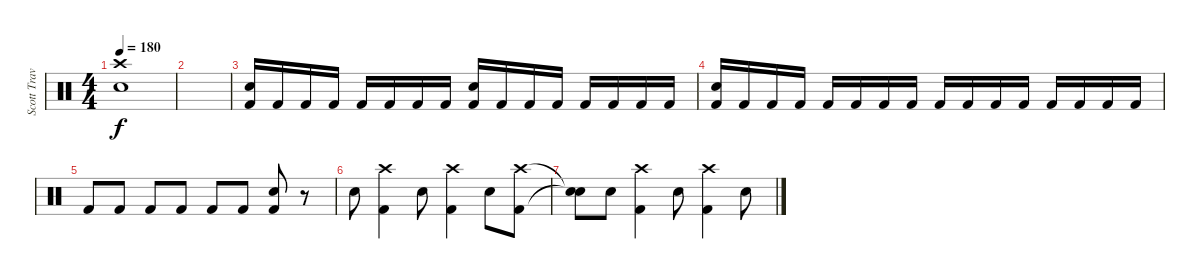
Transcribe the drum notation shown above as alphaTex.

\track ("Scott Travis" "Scott Trav") {instrument percussion}
\staff {score}
\articulation defaults
\ts (4 4)
\tempo 180
\clef neutral
\ks c
("Crash high (hit)" "Snare (hit) 2").1{dy f} |
|
("Snare (hit) 2" "Kick (hit) 2").16 "Kick (hit) 2".16 "Kick (hit) 2".16 "Kick (hit) 2".16 "Kick (hit) 2".16 "Kick (hit) 2".16 "Kick (hit) 2".16 "Kick (hit) 2".16 ("Snare (hit) 2" "Kick (hit) 2").16 "Kick (hit) 2".16 "Kick (hit) 2".16 "Kick (hit) 2".16 "Kick (hit) 2".16 "Kick (hit) 2".16 "Kick (hit) 2".16 "Kick (hit) 2".16 |
("Snare (hit) 2" "Kick (hit) 2").16 "Kick (hit) 2".16 "Kick (hit) 2".16 "Kick (hit) 2".16 "Kick (hit) 2".16 "Kick (hit) 2".16 "Kick (hit) 2".16 "Kick (hit) 2".16 "Kick (hit) 2".16 "Kick (hit) 2".16 "Kick (hit) 2".16 "Kick (hit) 2".16 "Kick (hit) 2".16 "Kick (hit) 2".16 "Kick (hit) 2".16 "Kick (hit) 2".16 |
"Kick (hit) 2".8 "Kick (hit) 2".8 "Kick (hit) 2".8 "Kick (hit) 2".8 "Kick (hit) 2".8 "Kick (hit) 2".8 ("Snare (hit) 2" "Kick (hit) 2").8 r.8 |
"Snare (hit) 2".8 ("Crash high (hit)" "Kick (hit) 2").4 "Snare (hit) 2".8 ("Crash high (hit)" "Kick (hit) 2").4 "Snare (hit) 2".8 ("Crash high (hit)" "Kick (hit) 2").8 |
("Snare (hit)"{t} "Snare (hit)"{t}).8 "Snare (hit) 2".8 ("Crash high (hit)" "Kick (hit) 2").4 "Snare (hit) 2".8 ("Crash high (hit)" "Kick (hit) 2").4 "Snare (hit) 2".8
